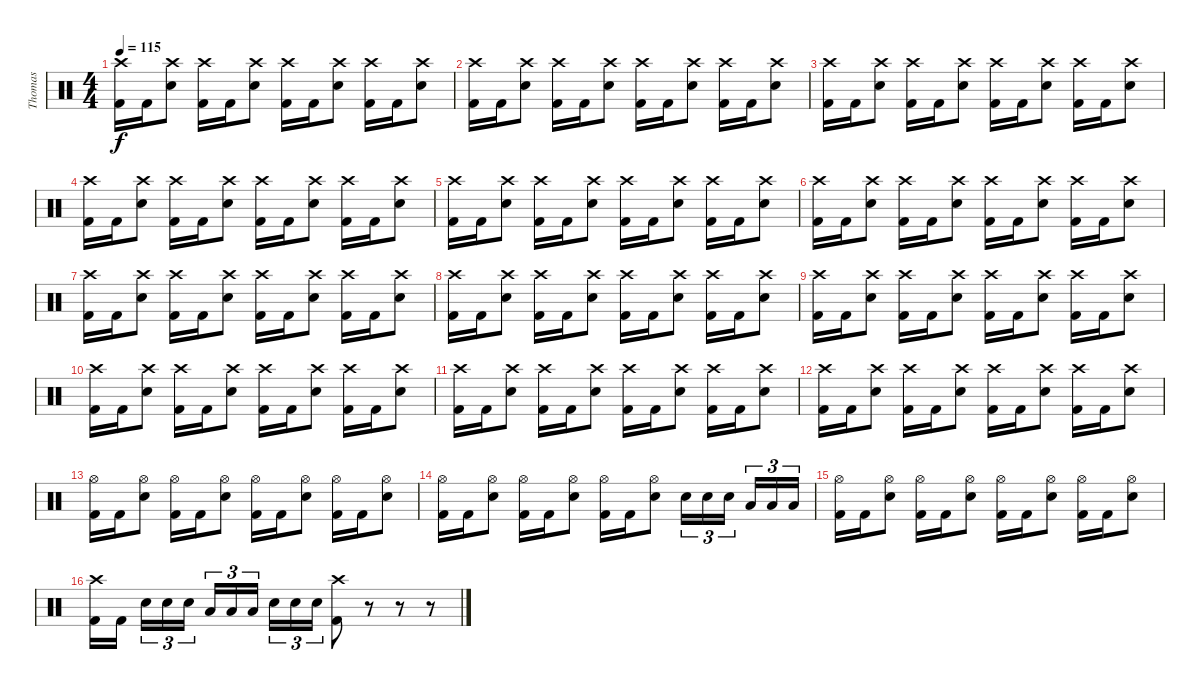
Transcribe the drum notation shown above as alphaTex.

\track ("Thomas" "Thomas") {instrument percussion}
\staff {score}
\articulation defaults
\ts (4 4)
\tempo 115
\clef neutral
\ks c
("Crash high (hit)" "Kick (hit) 2").16{dy f} "Kick (hit) 2".16 ("Crash high (hit)" "Electric Snare (hit)").8 ("Crash high (hit)" "Kick (hit) 2").16 "Kick (hit) 2".16 ("Crash high (hit)" "Electric Snare (hit)").8 ("Crash high (hit)" "Kick (hit) 2").16 "Kick (hit) 2".16 ("Crash high (hit)" "Electric Snare (hit)").8 ("Crash high (hit)" "Kick (hit) 2").16 "Kick (hit) 2".16 ("Crash high (hit)" "Electric Snare (hit)").8 |
("Crash high (hit)" "Kick (hit) 2").16 "Kick (hit) 2".16 ("Crash high (hit)" "Electric Snare (hit)").8 ("Crash high (hit)" "Kick (hit) 2").16 "Kick (hit) 2".16 ("Crash high (hit)" "Electric Snare (hit)").8 ("Crash high (hit)" "Kick (hit) 2").16 "Kick (hit) 2".16 ("Crash high (hit)" "Electric Snare (hit)").8 ("Crash high (hit)" "Kick (hit) 2").16 "Kick (hit) 2".16 ("Crash high (hit)" "Electric Snare (hit)").8 |
("Crash high (hit)" "Kick (hit) 2").16 "Kick (hit) 2".16 ("Crash high (hit)" "Electric Snare (hit)").8 ("Crash high (hit)" "Kick (hit) 2").16 "Kick (hit) 2".16 ("Crash high (hit)" "Electric Snare (hit)").8 ("Crash high (hit)" "Kick (hit) 2").16 "Kick (hit) 2".16 ("Crash high (hit)" "Electric Snare (hit)").8 ("Crash high (hit)" "Kick (hit) 2").16 "Kick (hit) 2".16 ("Crash high (hit)" "Electric Snare (hit)").8 |
("Crash high (hit)" "Kick (hit) 2").16 "Kick (hit) 2".16 ("Crash high (hit)" "Electric Snare (hit)").8 ("Crash high (hit)" "Kick (hit) 2").16 "Kick (hit) 2".16 ("Crash high (hit)" "Electric Snare (hit)").8 ("Crash high (hit)" "Kick (hit) 2").16 "Kick (hit) 2".16 ("Crash high (hit)" "Electric Snare (hit)").8 ("Crash high (hit)" "Kick (hit) 2").16 "Kick (hit) 2".16 ("Crash high (hit)" "Electric Snare (hit)").8 |
("Crash high (hit)" "Kick (hit) 2").16 "Kick (hit) 2".16 ("Crash high (hit)" "Electric Snare (hit)").8 ("Crash high (hit)" "Kick (hit) 2").16 "Kick (hit) 2".16 ("Crash high (hit)" "Electric Snare (hit)").8 ("Crash high (hit)" "Kick (hit) 2").16 "Kick (hit) 2".16 ("Crash high (hit)" "Electric Snare (hit)").8 ("Crash high (hit)" "Kick (hit) 2").16 "Kick (hit) 2".16 ("Crash high (hit)" "Electric Snare (hit)").8 |
("Crash high (hit)" "Kick (hit) 2").16 "Kick (hit) 2".16 ("Crash high (hit)" "Electric Snare (hit)").8 ("Crash high (hit)" "Kick (hit) 2").16 "Kick (hit) 2".16 ("Crash high (hit)" "Electric Snare (hit)").8 ("Crash high (hit)" "Kick (hit) 2").16 "Kick (hit) 2".16 ("Crash high (hit)" "Electric Snare (hit)").8 ("Crash high (hit)" "Kick (hit) 2").16 "Kick (hit) 2".16 ("Crash high (hit)" "Electric Snare (hit)").8 |
("Crash high (hit)" "Kick (hit) 2").16 "Kick (hit) 2".16 ("Crash high (hit)" "Electric Snare (hit)").8 ("Crash high (hit)" "Kick (hit) 2").16 "Kick (hit) 2".16 ("Crash high (hit)" "Electric Snare (hit)").8 ("Crash high (hit)" "Kick (hit) 2").16 "Kick (hit) 2".16 ("Crash high (hit)" "Electric Snare (hit)").8 ("Crash high (hit)" "Kick (hit) 2").16 "Kick (hit) 2".16 ("Crash high (hit)" "Electric Snare (hit)").8 |
("Crash high (hit)" "Kick (hit) 2").16 "Kick (hit) 2".16 ("Crash high (hit)" "Electric Snare (hit)").8 ("Crash high (hit)" "Kick (hit) 2").16 "Kick (hit) 2".16 ("Crash high (hit)" "Electric Snare (hit)").8 ("Crash high (hit)" "Kick (hit) 2").16 "Kick (hit) 2".16 ("Crash high (hit)" "Electric Snare (hit)").8 ("Crash high (hit)" "Kick (hit) 2").16 "Kick (hit) 2".16 ("Crash high (hit)" "Electric Snare (hit)").8 |
("Crash high (hit)" "Kick (hit) 2").16 "Kick (hit) 2".16 ("Crash high (hit)" "Electric Snare (hit)").8 ("Crash high (hit)" "Kick (hit) 2").16 "Kick (hit) 2".16 ("Crash high (hit)" "Electric Snare (hit)").8 ("Crash high (hit)" "Kick (hit) 2").16 "Kick (hit) 2".16 ("Crash high (hit)" "Electric Snare (hit)").8 ("Crash high (hit)" "Kick (hit) 2").16 "Kick (hit) 2".16 ("Crash high (hit)" "Electric Snare (hit)").8 |
("Crash high (hit)" "Kick (hit) 2").16 "Kick (hit) 2".16 ("Crash high (hit)" "Electric Snare (hit)").8 ("Crash high (hit)" "Kick (hit) 2").16 "Kick (hit) 2".16 ("Crash high (hit)" "Electric Snare (hit)").8 ("Crash high (hit)" "Kick (hit) 2").16 "Kick (hit) 2".16 ("Crash high (hit)" "Electric Snare (hit)").8 ("Crash high (hit)" "Kick (hit) 2").16 "Kick (hit) 2".16 ("Crash high (hit)" "Electric Snare (hit)").8 |
("Crash high (hit)" "Kick (hit) 2").16 "Kick (hit) 2".16 ("Crash high (hit)" "Electric Snare (hit)").8 ("Crash high (hit)" "Kick (hit) 2").16 "Kick (hit) 2".16 ("Crash high (hit)" "Electric Snare (hit)").8 ("Crash high (hit)" "Kick (hit) 2").16 "Kick (hit) 2".16 ("Crash high (hit)" "Electric Snare (hit)").8 ("Crash high (hit)" "Kick (hit) 2").16 "Kick (hit) 2".16 ("Crash high (hit)" "Electric Snare (hit)").8 |
("Crash high (hit)" "Kick (hit) 2").16 "Kick (hit) 2".16 ("Crash high (hit)" "Electric Snare (hit)").8 ("Crash high (hit)" "Kick (hit) 2").16 "Kick (hit) 2".16 ("Crash high (hit)" "Electric Snare (hit)").8 ("Crash high (hit)" "Kick (hit) 2").16 "Kick (hit) 2".16 ("Crash high (hit)" "Electric Snare (hit)").8 ("Crash high (hit)" "Kick (hit) 2").16 "Kick (hit) 2".16 ("Crash high (hit)" "Electric Snare (hit)").8 |
("Hi-Hat (open)" "Kick (hit) 2").16 "Kick (hit) 2".16 ("Hi-Hat (open)" "Electric Snare (hit)").8 ("Hi-Hat (open)" "Kick (hit) 2").16 "Kick (hit) 2".16 ("Hi-Hat (open)" "Electric Snare (hit)").8 ("Hi-Hat (open)" "Kick (hit) 2").16 "Kick (hit) 2".16 ("Hi-Hat (open)" "Electric Snare (hit)").8 ("Hi-Hat (open)" "Kick (hit) 2").16 "Kick (hit) 2".16 ("Hi-Hat (open)" "Electric Snare (hit)").8 |
("Hi-Hat (open)" "Kick (hit) 2").16 "Kick (hit) 2".16 ("Hi-Hat (open)" "Electric Snare (hit)").8 ("Hi-Hat (open)" "Kick (hit) 2").16 "Kick (hit) 2".16 ("Hi-Hat (open)" "Electric Snare (hit)").8 ("Hi-Hat (open)" "Kick (hit) 2").16 "Kick (hit) 2".16 ("Hi-Hat (open)" "Electric Snare (hit)").8 "Electric Snare (hit)".16{tu (3 2)} "Electric Snare (hit)".16{tu (3 2)} "Electric Snare (hit)".16{tu (3 2)} "Low Tom (hit)".16{tu (3 2)} "Low Tom (hit)".16{tu (3 2)} "Low Tom (hit)".16{tu (3 2)} |
("Hi-Hat (open)" "Kick (hit) 2").16 "Kick (hit) 2".16 ("Hi-Hat (open)" "Electric Snare (hit)").8 ("Hi-Hat (open)" "Kick (hit) 2").16 "Kick (hit) 2".16 ("Hi-Hat (open)" "Electric Snare (hit)").8 ("Hi-Hat (open)" "Kick (hit) 2").16 "Kick (hit) 2".16 ("Hi-Hat (open)" "Electric Snare (hit)").8 ("Hi-Hat (open)" "Kick (hit) 2").16 "Kick (hit) 2".16 ("Hi-Hat (open)" "Electric Snare (hit)").8 |
("Crash high (hit)" "Kick (hit) 2").16 "Kick (hit) 2".16 "Electric Snare (hit)".16{tu (3 2)} "Electric Snare (hit)".16{tu (3 2)} "Electric Snare (hit)".16{tu (3 2)} "Low Tom (hit)".16{tu (3 2)} "Low Tom (hit)".16{tu (3 2)} "Low Tom (hit)".16{tu (3 2)} "Electric Snare (hit)".16{tu (3 2)} "Electric Snare (hit)".16{tu (3 2)} "Electric Snare (hit)".16{tu (3 2)} ("Kick (hit) 2" "Crash high (hit)").8 r.8 r.8 r.8
